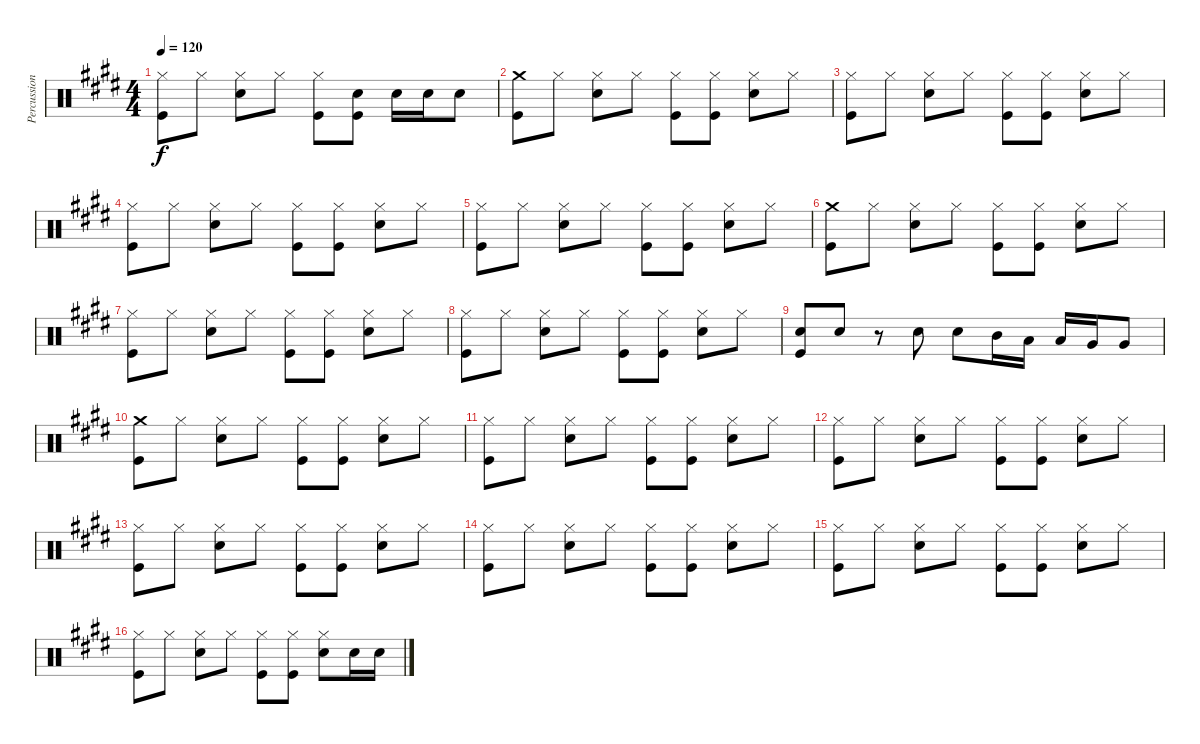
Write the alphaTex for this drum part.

\track ("Percussion" "Percussion") {instrument percussion}
\staff {score}
\articulation defaults
\ts (4 4)
\tempo 120
\clef neutral
\ks e
("Hi-Hat (closed)" "Kick (hit)").8{dy f} "Hi-Hat (closed)".8 ("Hi-Hat (closed)" "Snare (hit) 2").8 "Hi-Hat (closed)".8 ("Hi-Hat (closed)" "Kick (hit)").8 ("Snare (hit) 2" "Kick (hit)").8 "Snare (hit) 2".16 "Snare (hit) 2".16 "Snare (hit) 2".8 |
("Crash medium (hit)" "Kick (hit)").8 "Hi-Hat (closed)".8 ("Hi-Hat (closed)" "Snare (hit) 2").8 "Hi-Hat (closed)".8 ("Hi-Hat (closed)" "Kick (hit)").8 ("Hi-Hat (closed)" "Kick (hit)").8 ("Hi-Hat (closed)" "Snare (hit) 2").8 "Hi-Hat (closed)".8 |
("Hi-Hat (closed)" "Kick (hit)").8 "Hi-Hat (closed)".8 ("Hi-Hat (closed)" "Snare (hit) 2").8 "Hi-Hat (closed)".8 ("Hi-Hat (closed)" "Kick (hit)").8 ("Hi-Hat (closed)" "Kick (hit)").8 ("Hi-Hat (closed)" "Snare (hit) 2").8 "Hi-Hat (closed)".8 |
("Hi-Hat (closed)" "Kick (hit)").8 "Hi-Hat (closed)".8 ("Hi-Hat (closed)" "Snare (hit) 2").8 "Hi-Hat (closed)".8 ("Hi-Hat (closed)" "Kick (hit)").8 ("Hi-Hat (closed)" "Kick (hit)").8 ("Hi-Hat (closed)" "Snare (hit) 2").8 "Hi-Hat (closed)".8 |
("Hi-Hat (closed)" "Kick (hit)").8 "Hi-Hat (closed)".8 ("Hi-Hat (closed)" "Snare (hit) 2").8 "Hi-Hat (closed)".8 ("Hi-Hat (closed)" "Kick (hit)").8 ("Hi-Hat (closed)" "Kick (hit)").8 ("Hi-Hat (closed)" "Snare (hit) 2").8 "Hi-Hat (closed)".8 |
("Crash medium (hit)" "Kick (hit)").8 "Hi-Hat (closed)".8 ("Hi-Hat (closed)" "Snare (hit) 2").8 "Hi-Hat (closed)".8 ("Hi-Hat (closed)" "Kick (hit)").8 ("Hi-Hat (closed)" "Kick (hit)").8 ("Hi-Hat (closed)" "Snare (hit) 2").8 "Hi-Hat (closed)".8 |
("Hi-Hat (closed)" "Kick (hit)").8 "Hi-Hat (closed)".8 ("Hi-Hat (closed)" "Snare (hit) 2").8 "Hi-Hat (closed)".8 ("Hi-Hat (closed)" "Kick (hit)").8 ("Hi-Hat (closed)" "Kick (hit)").8 ("Hi-Hat (closed)" "Snare (hit) 2").8 "Hi-Hat (closed)".8 |
("Hi-Hat (closed)" "Kick (hit)").8 "Hi-Hat (closed)".8 ("Hi-Hat (closed)" "Snare (hit) 2").8 "Hi-Hat (closed)".8 ("Hi-Hat (closed)" "Kick (hit)").8 ("Hi-Hat (closed)" "Kick (hit)").8 ("Hi-Hat (closed)" "Snare (hit) 2").8 "Hi-Hat (closed)".8 |
("Snare (hit) 2" "Kick (hit)").8 "Snare (hit) 2".8 r.8 "Snare (hit) 2".8 "Snare (hit) 2".8 "Mid Tom (hit)".16 "Low Tom (hit)".16 "Low Tom (hit)".16 "Very Low Tom (hit)".16 "Very Low Tom (hit)".8 |
("Crash medium (hit)" "Kick (hit)").8 "Hi-Hat (closed)".8 ("Hi-Hat (closed)" "Snare (hit) 2").8 "Hi-Hat (closed)".8 ("Hi-Hat (closed)" "Kick (hit)").8 ("Hi-Hat (closed)" "Kick (hit)").8 ("Hi-Hat (closed)" "Snare (hit) 2").8 "Hi-Hat (closed)".8 |
("Hi-Hat (closed)" "Kick (hit)").8 "Hi-Hat (closed)".8 ("Hi-Hat (closed)" "Snare (hit) 2").8 "Hi-Hat (closed)".8 ("Hi-Hat (closed)" "Kick (hit)").8 ("Hi-Hat (closed)" "Kick (hit)").8 ("Hi-Hat (closed)" "Snare (hit) 2").8 "Hi-Hat (closed)".8 |
("Hi-Hat (closed)" "Kick (hit)").8 "Hi-Hat (closed)".8 ("Hi-Hat (closed)" "Snare (hit) 2").8 "Hi-Hat (closed)".8 ("Hi-Hat (closed)" "Kick (hit)").8 ("Hi-Hat (closed)" "Kick (hit)").8 ("Hi-Hat (closed)" "Snare (hit) 2").8 "Hi-Hat (closed)".8 |
("Hi-Hat (closed)" "Kick (hit)").8 "Hi-Hat (closed)".8 ("Hi-Hat (closed)" "Snare (hit) 2").8 "Hi-Hat (closed)".8 ("Hi-Hat (closed)" "Kick (hit)").8 ("Hi-Hat (closed)" "Kick (hit)").8 ("Hi-Hat (closed)" "Snare (hit) 2").8 "Hi-Hat (closed)".8 |
("Hi-Hat (closed)" "Kick (hit)").8 "Hi-Hat (closed)".8 ("Hi-Hat (closed)" "Snare (hit) 2").8 "Hi-Hat (closed)".8 ("Hi-Hat (closed)" "Kick (hit)").8 ("Hi-Hat (closed)" "Kick (hit)").8 ("Hi-Hat (closed)" "Snare (hit) 2").8 "Hi-Hat (closed)".8 |
("Hi-Hat (closed)" "Kick (hit)").8 "Hi-Hat (closed)".8 ("Hi-Hat (closed)" "Snare (hit) 2").8 "Hi-Hat (closed)".8 ("Hi-Hat (closed)" "Kick (hit)").8 ("Hi-Hat (closed)" "Kick (hit)").8 ("Hi-Hat (closed)" "Snare (hit) 2").8 "Hi-Hat (closed)".8 |
("Hi-Hat (closed)" "Kick (hit)").8 "Hi-Hat (closed)".8 ("Hi-Hat (closed)" "Snare (hit) 2").8 "Hi-Hat (closed)".8 ("Hi-Hat (closed)" "Kick (hit)").8 ("Hi-Hat (closed)" "Kick (hit)").8 ("Hi-Hat (closed)" "Snare (hit) 2").8 "Snare (hit) 2".16 "Snare (hit) 2".16
